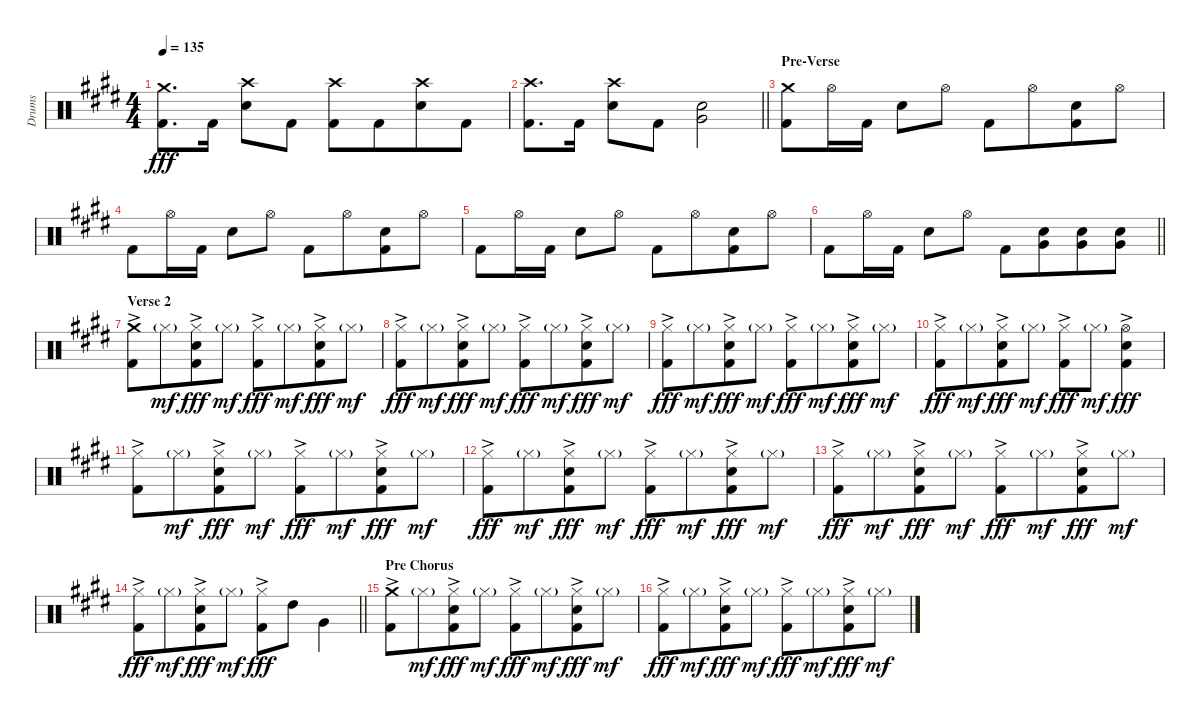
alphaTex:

\track ("Drums" "Drums") {instrument percussion}
\staff {score}
\articulation defaults
\ts (4 4)
\tempo 135
\clef neutral
\ks c#minor
("Kick (hit) 2" "Crash medium (hit)").8{d dy fff} "Kick (hit) 2".16{beam split} ("Crash high (hit)" "Snare (hit) 2").8 "Kick (hit) 2".8{beam split} ("Kick (hit) 2" "Crash high (hit)").8 "Kick (hit) 2".8{beam merge} ("Crash high (hit)" "Snare (hit) 2").8 "Kick (hit) 2".8 |
\barLineRight lightlight
("Kick (hit) 2" "Crash high (hit)").8{d} "Kick (hit) 2".16{beam split} ("Crash high (hit)" "Snare (hit) 2").8 "Kick (hit) 2".8 ("Very Low Tom (hit)" "Snare (hit) 2").2{beam Down} |
\section ("" "Pre-Verse")
("Kick (hit) 2" "Crash medium (hit)").8 "Hi-Hat (open)".16 "Kick (hit) 2".16 "Snare (hit) 2".8 "Hi-Hat (open)".8 "Kick (hit) 2".8 "Hi-Hat (open)".8{beam merge} ("Kick (hit) 2" "Snare (hit) 2").8 "Hi-Hat (open)".8 |
"Kick (hit) 2".8 "Hi-Hat (open)".16 "Kick (hit) 2".16 "Snare (hit) 2".8 "Hi-Hat (open)".8 "Kick (hit) 2".8 "Hi-Hat (open)".8{beam merge} ("Kick (hit) 2" "Snare (hit) 2").8 "Hi-Hat (open)".8 |
"Kick (hit) 2".8 "Hi-Hat (open)".16 "Kick (hit) 2".16 "Snare (hit) 2".8 "Hi-Hat (open)".8 "Kick (hit) 2".8 "Hi-Hat (open)".8{beam merge} ("Kick (hit) 2" "Snare (hit) 2").8 "Hi-Hat (open)".8 |
\barLineRight lightlight "Kick (hit) 2".8 "Hi-Hat (open)".16 "Kick (hit) 2".16 "Snare (hit) 2".8 "Hi-Hat (open)".8 "Kick (hit) 2".8{beam Down}
("Very Low Tom (hit)" "Snare (hit) 2").8{beam Down beam merge} ("Very Low Tom (hit)" "Snare (hit) 2").8{beam Down} ("Very Low Tom (hit)" "Snare (hit) 2").8{beam Down} |
\section ("" "Verse 2")
("Kick (hit) 2" "Crash medium (hit)"{ac}).8 "Hi-Hat (closed)"{g}.8{dy mf beam merge} ("Kick (hit) 2" "Hi-Hat (closed)"{ac} "Snare (hit) 2").8{dy fff} "Hi-Hat (closed)"{g}.8{dy mf beam split} ("Kick (hit) 2" "Hi-Hat (closed)"{ac}).8{dy fff} "Hi-Hat (closed)"{g}.8{dy mf beam merge} ("Kick (hit) 2" "Hi-Hat (closed)"{ac} "Snare (hit) 2").8{dy fff} "Hi-Hat (closed)"{g}.8{dy mf} |
("Kick (hit) 2" "Hi-Hat (closed)"{ac}).8{dy fff} "Hi-Hat (closed)"{g}.8{dy mf beam merge} ("Kick (hit) 2" "Hi-Hat (closed)"{ac} "Snare (hit) 2").8{dy fff} "Hi-Hat (closed)"{g}.8{dy mf beam split} ("Kick (hit) 2" "Hi-Hat (closed)"{ac}).8{dy fff} "Hi-Hat (closed)"{g}.8{dy mf beam merge} ("Kick (hit) 2" "Hi-Hat (closed)"{ac} "Snare (hit) 2").8{dy fff} "Hi-Hat (closed)"{g}.8{dy mf} |
("Kick (hit) 2" "Hi-Hat (closed)"{ac}).8{dy fff} "Hi-Hat (closed)"{g}.8{dy mf beam merge} ("Kick (hit) 2" "Hi-Hat (closed)"{ac} "Snare (hit) 2").8{dy fff} "Hi-Hat (closed)"{g}.8{dy mf beam split} ("Kick (hit) 2" "Hi-Hat (closed)"{ac}).8{dy fff} "Hi-Hat (closed)"{g}.8{dy mf beam merge} ("Kick (hit) 2" "Hi-Hat (closed)"{ac} "Snare (hit) 2").8{dy fff} "Hi-Hat (closed)"{g}.8{dy mf} |
("Kick (hit) 2" "Hi-Hat (closed)"{ac}).8{dy fff} "Hi-Hat (closed)"{g}.8{dy mf beam merge} ("Kick (hit) 2" "Hi-Hat (closed)"{ac} "Snare (hit) 2").8{dy fff} "Hi-Hat (closed)"{g}.8{dy mf beam split} ("Kick (hit) 2" "Hi-Hat (closed)"{ac}).8{dy fff} "Hi-Hat (closed)"{g}.8{dy mf beam merge} ("Kick (hit) 2" "Hi-Hat (open)"{ac} "Snare (hit) 2").4{dy fff} |
("Kick (hit) 2" "Hi-Hat (closed)"{ac}).8 "Hi-Hat (closed)"{g}.8{dy mf beam merge} ("Kick (hit) 2" "Hi-Hat (closed)"{ac} "Snare (hit) 2").8{dy fff} "Hi-Hat (closed)"{g}.8{dy mf beam split} ("Kick (hit) 2" "Hi-Hat (closed)"{ac}).8{dy fff} "Hi-Hat (closed)"{g}.8{dy mf beam merge} ("Kick (hit) 2" "Hi-Hat (closed)"{ac} "Snare (hit) 2").8{dy fff} "Hi-Hat (closed)"{g}.8{dy mf} |
("Kick (hit) 2" "Hi-Hat (closed)"{ac}).8{dy fff} "Hi-Hat (closed)"{g}.8{dy mf beam merge} ("Kick (hit) 2" "Hi-Hat (closed)"{ac} "Snare (hit) 2").8{dy fff} "Hi-Hat (closed)"{g}.8{dy mf beam split} ("Kick (hit) 2" "Hi-Hat (closed)"{ac}).8{dy fff} "Hi-Hat (closed)"{g}.8{dy mf beam merge} ("Kick (hit) 2" "Hi-Hat (closed)"{ac} "Snare (hit) 2").8{dy fff} "Hi-Hat (closed)"{g}.8{dy mf} |
("Kick (hit) 2" "Hi-Hat (closed)"{ac}).8{dy fff} "Hi-Hat (closed)"{g}.8{dy mf beam merge} ("Kick (hit) 2" "Hi-Hat (closed)"{ac} "Snare (hit) 2").8{dy fff} "Hi-Hat (closed)"{g}.8{dy mf beam split} ("Kick (hit) 2" "Hi-Hat (closed)"{ac}).8{dy fff} "Hi-Hat (closed)"{g}.8{dy mf beam merge} ("Kick (hit) 2" "Hi-Hat (closed)"{ac} "Snare (hit) 2").8{dy fff} "Hi-Hat (closed)"{g}.8{dy mf} |
\barLineRight lightlight
("Kick (hit) 2" "Hi-Hat (closed)"{ac}).8{dy fff} "Hi-Hat (closed)"{g}.8{dy mf beam merge} ("Kick (hit) 2" "Hi-Hat (closed)"{ac} "Snare (hit) 2").8{dy fff} "Hi-Hat (closed)"{g}.8{dy mf beam split} ("Kick (hit) 2" "Hi-Hat (closed)"{ac}).8{dy fff} "High Tom (hit)".8 "Very Low Tom (hit)".4{beam Down} |
\section ("" "Pre Chorus")
("Kick (hit) 2" "Crash medium (hit)"{ac}).8 "Hi-Hat (closed)"{g}.8{dy mf beam merge} ("Kick (hit) 2" "Hi-Hat (closed)"{ac} "Snare (hit) 2").8{dy fff} "Hi-Hat (closed)"{g}.8{dy mf beam split} ("Kick (hit) 2" "Hi-Hat (closed)"{ac}).8{dy fff} "Hi-Hat (closed)"{g}.8{dy mf beam merge} ("Kick (hit) 2" "Hi-Hat (closed)"{ac} "Snare (hit) 2").8{dy fff} "Hi-Hat (closed)"{g}.8{dy mf} |
("Kick (hit) 2" "Hi-Hat (closed)"{ac}).8{dy fff} "Hi-Hat (closed)"{g}.8{dy mf beam merge} ("Kick (hit) 2" "Hi-Hat (closed)"{ac} "Snare (hit) 2").8{dy fff} "Hi-Hat (closed)"{g}.8{dy mf beam split} ("Kick (hit) 2" "Hi-Hat (closed)"{ac}).8{dy fff} "Hi-Hat (closed)"{g}.8{dy mf beam merge} ("Kick (hit) 2" "Hi-Hat (closed)"{ac} "Snare (hit) 2").8{dy fff} "Hi-Hat (closed)"{g}.8{dy mf}
